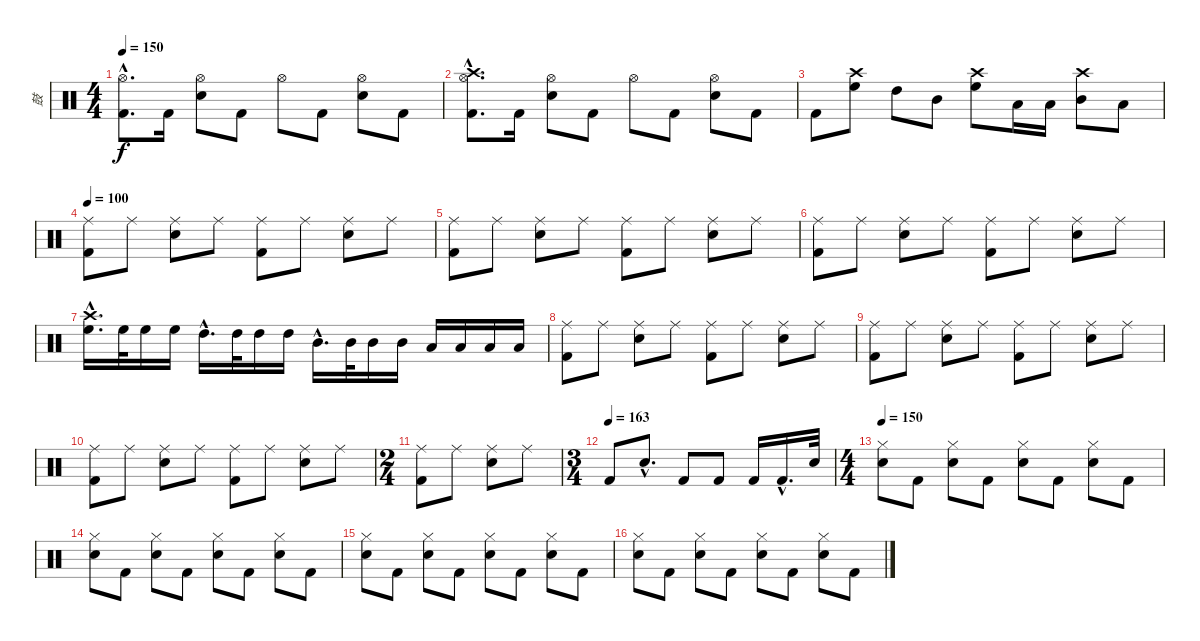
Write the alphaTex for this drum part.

\track ("鼓" "鼓") {instrument percussion}
\staff {score}
\articulation defaults
\ts (4 4)
\tempo 150
\clef neutral
\ks c
("Hi-Hat (open)"{hac} "Kick (hit) 2"{hac}).8{d dy f} "Kick (hit) 2".16 ("Hi-Hat (open)" "Electric Snare (hit)").8 "Kick (hit) 2".8 "Hi-Hat (open)".8 "Kick (hit) 2".8 ("Hi-Hat (open)" "Electric Snare (hit)").8 "Kick (hit) 2".8 |
("Crash high (hit)"{hac} "Hi-Hat (open)"{hac} "Kick (hit) 2"{hac}).8{d} "Kick (hit) 2".16 ("Hi-Hat (open)" "Electric Snare (hit)").8 "Kick (hit) 2".8 "Hi-Hat (open)".8 "Kick (hit) 2".8 ("Hi-Hat (open)" "Electric Snare (hit)").8 "Kick (hit) 2".8 |
"Kick (hit) 2".8 ("Crash high (hit)" "High Floor Tom (hit)").8 "High Tom (hit)".8 "Mid Tom (hit)".8 ("Crash high (hit)" "High Floor Tom (hit)").8 "Low Tom (hit)".16 "Low Tom (hit)".16 ("Crash high (hit)" "Mid Tom (hit)").8 "Low Tom (hit)".8 |
\tempo 100
("Ride (middle)" "Kick (hit) 2").8 "Ride (middle)".8 ("Ride (middle)" "Electric Snare (hit)").8 "Ride (middle)".8 ("Ride (middle)" "Kick (hit) 2").8 "Ride (middle)".8 ("Ride (middle)" "Electric Snare (hit)").8 "Ride (middle)".8 |
("Ride (middle)" "Kick (hit) 2").8 "Ride (middle)".8 ("Ride (middle)" "Electric Snare (hit)").8 "Ride (middle)".8 ("Ride (middle)" "Kick (hit) 2").8 "Ride (middle)".8 ("Ride (middle)" "Electric Snare (hit)").8 "Ride (middle)".8 |
("Ride (middle)" "Kick (hit) 2").8 "Ride (middle)".8 ("Ride (middle)" "Electric Snare (hit)").8 "Ride (middle)".8 ("Ride (middle)" "Kick (hit) 2").8 "Ride (middle)".8 ("Ride (middle)" "Electric Snare (hit)").8 "Ride (middle)".8 |
("Crash high (hit)"{hac} "High Floor Tom (hit)"{hac}).16{d} "High Floor Tom (hit)".32 "High Floor Tom (hit)".16 "High Floor Tom (hit)".16 "High Tom (hit)"{hac}.16{d} "High Tom (hit)".32 "High Tom (hit)".16 "High Tom (hit)".16 "Mid Tom (hit)"{hac}.16{d} "Mid Tom (hit)".32 "Mid Tom (hit)".16 "Mid Tom (hit)".16 "Low Tom (hit)".16 "Low Tom (hit)".16 "Low Tom (hit)".16 "Low Tom (hit)".16 |
("Ride (middle)" "Kick (hit) 2").8 "Ride (middle)".8 ("Ride (middle)" "Electric Snare (hit)").8 "Ride (middle)".8 ("Ride (middle)" "Kick (hit) 2").8 "Ride (middle)".8 ("Ride (middle)" "Electric Snare (hit)").8 "Ride (middle)".8 |
("Ride (middle)" "Kick (hit) 2").8 "Ride (middle)".8 ("Ride (middle)" "Electric Snare (hit)").8 "Ride (middle)".8 ("Ride (middle)" "Kick (hit) 2").8 "Ride (middle)".8 ("Ride (middle)" "Electric Snare (hit)").8 "Ride (middle)".8 |
("Ride (middle)" "Kick (hit) 2").8 "Ride (middle)".8 ("Ride (middle)" "Electric Snare (hit)").8 "Ride (middle)".8 ("Ride (middle)" "Kick (hit) 2").8 "Ride (middle)".8 ("Ride (middle)" "Electric Snare (hit)").8 "Ride (middle)".8 |
\ts (2 4)
("Ride (middle)" "Kick (hit) 2").8 "Ride (middle)".8 ("Ride (middle)" "Electric Snare (hit)").8 "Ride (middle)".8 |
\ts (3 4)
\tempo (163)
"Kick (hit) 2".8 "Electric Snare (hit)"{hac}.8{d} "Kick (hit) 2".8 "Kick (hit) 2".8 "Kick (hit) 2".16 "Kick (hit) 2"{hac}.16{d} "Electric Snare (hit)".32 |
\ts (4 4)
\tempo 150
("Hi-Hat (closed)" "Electric Snare (hit)").8 "Kick (hit) 2".8 ("Hi-Hat (closed)" "Electric Snare (hit)").8 "Kick (hit) 2".8 ("Hi-Hat (closed)" "Electric Snare (hit)").8 "Kick (hit) 2".8 ("Hi-Hat (closed)" "Electric Snare (hit)").8 "Kick (hit) 2".8 |
("Hi-Hat (closed)" "Electric Snare (hit)").8 "Kick (hit) 2".8 ("Hi-Hat (closed)" "Electric Snare (hit)").8 "Kick (hit) 2".8 ("Hi-Hat (closed)" "Electric Snare (hit)").8 "Kick (hit) 2".8 ("Hi-Hat (closed)" "Electric Snare (hit)").8 "Kick (hit) 2".8 |
("Hi-Hat (closed)" "Electric Snare (hit)").8 "Kick (hit) 2".8 ("Hi-Hat (closed)" "Electric Snare (hit)").8 "Kick (hit) 2".8 ("Hi-Hat (closed)" "Electric Snare (hit)").8 "Kick (hit) 2".8 ("Hi-Hat (closed)" "Electric Snare (hit)").8 "Kick (hit) 2".8 |
("Hi-Hat (closed)" "Electric Snare (hit)").8 "Kick (hit) 2".8 ("Hi-Hat (closed)" "Electric Snare (hit)").8 "Kick (hit) 2".8 ("Hi-Hat (closed)" "Electric Snare (hit)").8 "Kick (hit) 2".8 ("Hi-Hat (closed)" "Electric Snare (hit)").8 "Kick (hit) 2".8
